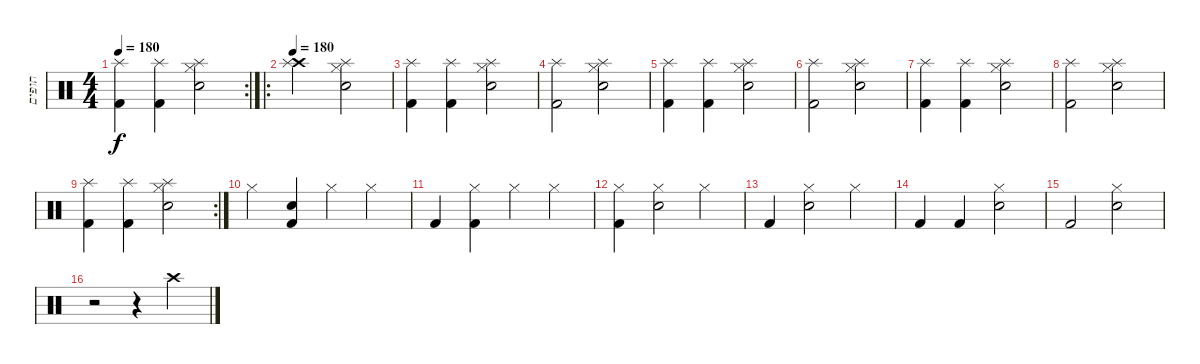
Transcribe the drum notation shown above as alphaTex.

\track ("תופים" "תופים") {instrument percussion}
\staff {score}
\articulation defaults
\rc 2
\ts (4 4)
\tempo 180
\clef neutral
\ks c
("Kick (hit) 2" "Splash (hit)").4{dy f} ("Kick (hit) 2" "Splash (hit)").4 ("Hi-Hat (closed)" "Snare (hit) 2" "Splash (hit)").2 |
\ro
\tempo 180
("Crash high (hit)" "Splash (hit)").2 ("Hi-Hat (closed)" "Snare (hit) 2" "Splash (hit)").2 |
("Kick (hit) 2" "Splash (hit)").4 ("Kick (hit) 2" "Splash (hit)").4 ("Hi-Hat (closed)" "Snare (hit) 2" "Splash (hit)").2 |
("Kick (hit) 2" "Splash (hit)").2 ("Hi-Hat (closed)" "Snare (hit) 2" "Splash (hit)").2 |
("Kick (hit) 2" "Splash (hit)").4 ("Kick (hit) 2" "Splash (hit)").4 ("Hi-Hat (closed)" "Snare (hit) 2" "Splash (hit)").2 |
("Kick (hit) 2" "Splash (hit)").2 ("Hi-Hat (closed)" "Snare (hit) 2" "Splash (hit)").2 |
("Kick (hit) 2" "Splash (hit)").4 ("Kick (hit) 2" "Splash (hit)").4 ("Hi-Hat (closed)" "Snare (hit) 2" "Splash (hit)").2 |
("Kick (hit) 2" "Splash (hit)").2 ("Hi-Hat (closed)" "Snare (hit) 2" "Splash (hit)").2 |
\rc 2
("Kick (hit) 2" "Splash (hit)").4 ("Kick (hit) 2" "Splash (hit)").4 ("Hi-Hat (closed)" "Snare (hit) 2" "Splash (hit)").2 |
"Hi-Hat (closed)".4 ("Kick (hit) 2" "Snare (hit) 2").4 "Hi-Hat (closed)".4 "Hi-Hat (closed)".4 |
"Kick (hit) 2".4 ("Hi-Hat (closed)" "Kick (hit) 2").4 "Hi-Hat (closed)".4 "Hi-Hat (closed)".4 |
("Hi-Hat (closed)" "Kick (hit) 2").4 ("Snare (hit) 2" "Hi-Hat (closed)").2 "Hi-Hat (closed)".4 |
"Kick (hit) 2".4 ("Hi-Hat (closed)" "Snare (hit) 2").2 "Hi-Hat (closed)".4 |
"Kick (hit) 2".4 "Kick (hit) 2".4 ("Hi-Hat (closed)" "Snare (hit) 2").2 |
"Kick (hit) 2".2 ("Hi-Hat (closed)" "Snare (hit) 2").2 |
r.2 r.4 "Crash high (hit)".4
